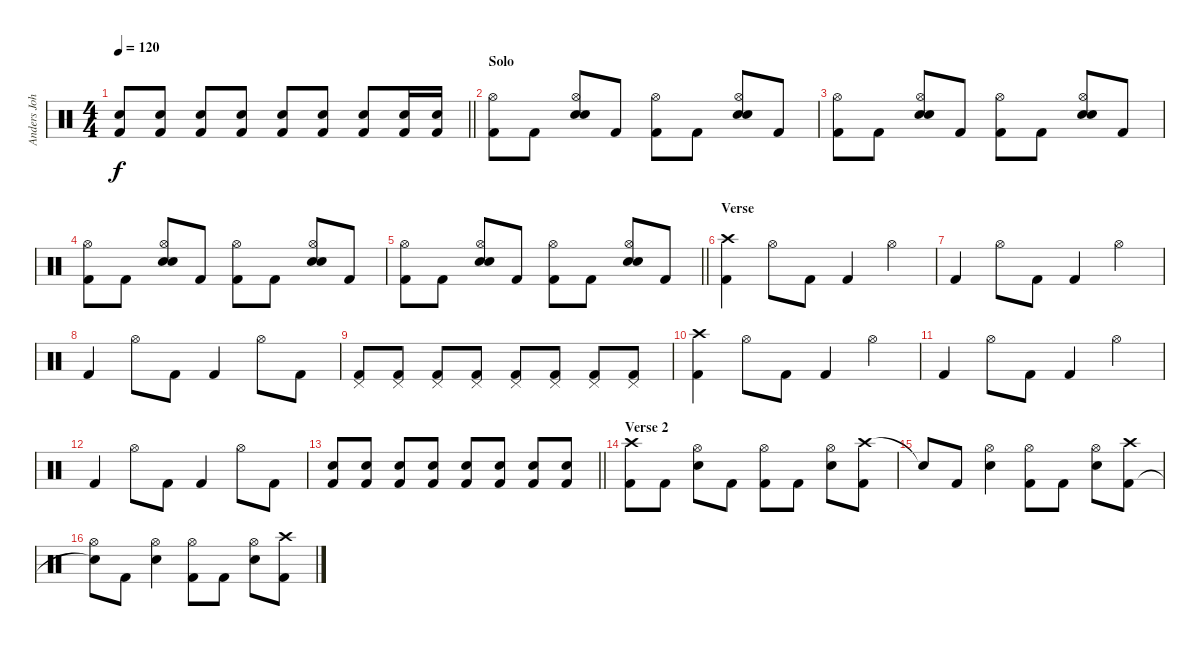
\track ("Anders Johansson" "Anders Joh") {instrument percussion}
\staff {score}
\articulation defaults
\ts (4 4)
\tempo 120
\clef neutral
\barLineRight lightlight
\ks c
("Snare (hit) 2" "Kick (hit) 2").8{dy f} ("Snare (hit) 2" "Kick (hit) 2").8 ("Snare (hit) 2" "Kick (hit) 2").8 ("Snare (hit) 2" "Kick (hit) 2").8 ("Snare (hit) 2" "Kick (hit) 2").8 ("Snare (hit) 2" "Kick (hit) 2").8 ("Snare (hit) 2" "Kick (hit) 2").8 ("Snare (hit) 2" "Kick (hit) 2").16 ("Snare (hit) 2" "Kick (hit) 2").16 |
\section ("" "Solo")
("Hi-Hat (open)" "Kick (hit) 2").8 "Kick (hit) 2".8 ("Hi-Hat (open)" "Electric Snare (hit)" "Snare (hit) 2").8 "Kick (hit) 2".8 ("Hi-Hat (open)" "Kick (hit) 2").8 "Kick (hit) 2".8 ("Hi-Hat (open)" "Electric Snare (hit)" "Snare (hit) 2").8 "Kick (hit) 2".8 |
("Hi-Hat (open)" "Kick (hit) 2").8 "Kick (hit) 2".8 ("Hi-Hat (open)" "Electric Snare (hit)" "Snare (hit) 2").8 "Kick (hit) 2".8 ("Hi-Hat (open)" "Kick (hit) 2").8 "Kick (hit) 2".8 ("Hi-Hat (open)" "Electric Snare (hit)" "Snare (hit) 2").8 "Kick (hit) 2".8 |
("Hi-Hat (open)" "Kick (hit) 2").8 "Kick (hit) 2".8 ("Hi-Hat (open)" "Electric Snare (hit)" "Snare (hit) 2").8 "Kick (hit) 2".8 ("Hi-Hat (open)" "Kick (hit) 2").8 "Kick (hit) 2".8 ("Hi-Hat (open)" "Electric Snare (hit)" "Snare (hit) 2").8 "Kick (hit) 2".8 |
\barLineRight lightlight
("Hi-Hat (open)" "Kick (hit) 2").8 "Kick (hit) 2".8 ("Hi-Hat (open)" "Electric Snare (hit)" "Snare (hit) 2").8 "Kick (hit) 2".8 ("Hi-Hat (open)" "Kick (hit) 2").8 "Kick (hit) 2".8 ("Hi-Hat (open)" "Electric Snare (hit)" "Snare (hit) 2").8 "Kick (hit) 2".8 |
\section ("" "Verse")
("Crash high (hit)" "Kick (hit) 2").4 "Hi-Hat (open)".8 "Kick (hit) 2".8 "Kick (hit) 2".4 "Hi-Hat (open)".4 |
"Kick (hit) 2".4 "Hi-Hat (open)".8 "Kick (hit) 2".8 "Kick (hit) 2".4 "Hi-Hat (open)".4 |
"Kick (hit) 2".4 "Hi-Hat (open)".8 "Kick (hit) 2".8 "Kick (hit) 2".4 "Hi-Hat (open)".8 "Kick (hit) 2".8 |
("Pedal Hi-Hat (hit)" "Kick (hit) 2").8 ("Pedal Hi-Hat (hit)" "Kick (hit) 2").8 ("Pedal Hi-Hat (hit)" "Kick (hit) 2").8 ("Pedal Hi-Hat (hit)" "Kick (hit) 2").8 ("Pedal Hi-Hat (hit)" "Kick (hit) 2").8 ("Pedal Hi-Hat (hit)" "Kick (hit) 2").8 ("Pedal Hi-Hat (hit)" "Kick (hit) 2").8 ("Pedal Hi-Hat (hit)" "Kick (hit) 2").8 |
("Crash high (hit)" "Kick (hit) 2").4 "Hi-Hat (open)".8 "Kick (hit) 2".8 "Kick (hit) 2".4 "Hi-Hat (open)".4 |
"Kick (hit) 2".4 "Hi-Hat (open)".8 "Kick (hit) 2".8 "Kick (hit) 2".4 "Hi-Hat (open)".4 |
"Kick (hit) 2".4 "Hi-Hat (open)".8 "Kick (hit) 2".8 "Kick (hit) 2".4 "Hi-Hat (open)".8 "Kick (hit) 2".8 |
\barLineRight lightlight
("Snare (hit) 2" "Kick (hit) 2").8 ("Snare (hit) 2" "Kick (hit) 2").8 ("Snare (hit) 2" "Kick (hit) 2").8 ("Snare (hit) 2" "Kick (hit) 2").8 ("Snare (hit) 2" "Kick (hit) 2").8 ("Snare (hit) 2" "Kick (hit) 2").8 ("Snare (hit) 2" "Kick (hit) 2").8 ("Snare (hit) 2" "Kick (hit) 2").8 |
\section ("" "Verse 2")
("Crash high (hit)" "Kick (hit) 2").8 "Kick (hit) 2".8 ("Hi-Hat (open)" "Electric Snare (hit)").8 "Kick (hit) 2".8 ("Hi-Hat (open)" "Kick (hit) 2").8 "Kick (hit) 2".8 ("Hi-Hat (open)" "Electric Snare (hit)").8 ("Crash high (hit)" "Kick (hit) 2").8 |
"Snare (hit)"{t}.8 "Kick (hit) 2".8 ("Hi-Hat (open)" "Electric Snare (hit)").4 ("Hi-Hat (open)" "Kick (hit) 2").8 "Kick (hit) 2".8 ("Hi-Hat (open)" "Electric Snare (hit)").8 ("Crash high (hit)" "Kick (hit) 2").8 |
("Hi-Hat (open)" "Snare (hit)"{t}).8 "Kick (hit) 2".8 ("Hi-Hat (open)" "Electric Snare (hit)").4 ("Hi-Hat (open)" "Kick (hit) 2").8 "Kick (hit) 2".8 ("Hi-Hat (open)" "Electric Snare (hit)").8 ("Crash high (hit)" "Kick (hit) 2").8
